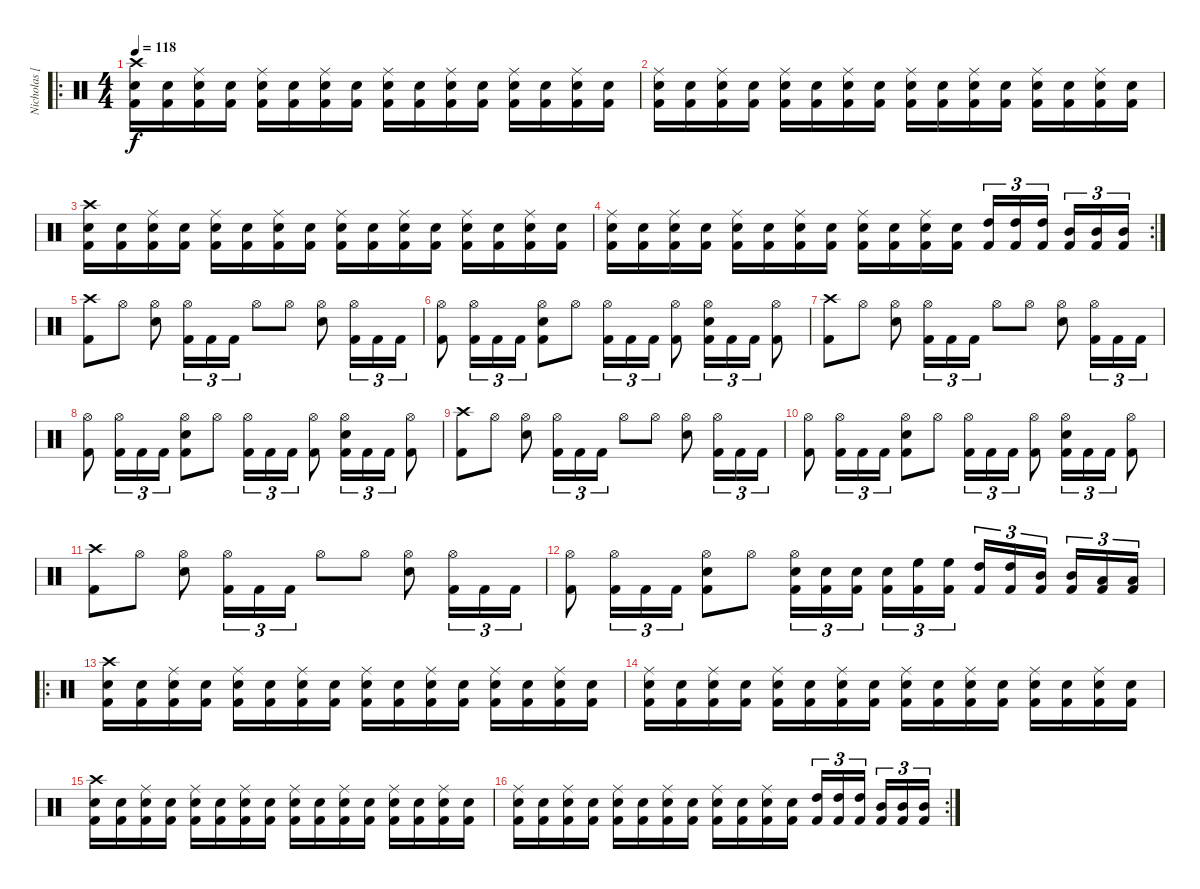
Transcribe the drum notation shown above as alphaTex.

\track ("Nicholas [Percussion]" "Nicholas [") {instrument percussion}
\staff {score}
\articulation defaults
\ro
\ts (4 4)
\tempo 118
\clef neutral
\ks c
("Kick (hit) 2" "Snare (hit) 2" "Crash high (hit)").16{dy f} ("Kick (hit) 2" "Snare (hit) 2").16 ("Kick (hit) 2" "Snare (hit) 2" "Ride (middle)").16 ("Kick (hit) 2" "Snare (hit) 2").16 ("Kick (hit) 2" "Snare (hit) 2" "Ride (middle)").16 ("Kick (hit) 2" "Snare (hit) 2").16 ("Kick (hit) 2" "Snare (hit) 2" "Ride (middle)").16 ("Kick (hit) 2" "Snare (hit) 2").16 ("Kick (hit) 2" "Snare (hit) 2" "Ride (middle)").16 ("Kick (hit) 2" "Snare (hit) 2").16 ("Kick (hit) 2" "Snare (hit) 2" "Ride (middle)").16 ("Kick (hit) 2" "Snare (hit) 2").16 ("Kick (hit) 2" "Snare (hit) 2" "Ride (middle)").16 ("Kick (hit) 2" "Snare (hit) 2").16 ("Kick (hit) 2" "Snare (hit) 2" "Ride (middle)").16 ("Kick (hit) 2" "Snare (hit) 2").16 |
("Kick (hit) 2" "Snare (hit) 2" "Ride (middle)").16 ("Kick (hit) 2" "Snare (hit) 2").16 ("Kick (hit) 2" "Snare (hit) 2" "Ride (middle)").16 ("Kick (hit) 2" "Snare (hit) 2").16 ("Kick (hit) 2" "Snare (hit) 2" "Ride (middle)").16 ("Kick (hit) 2" "Snare (hit) 2").16 ("Kick (hit) 2" "Snare (hit) 2" "Ride (middle)").16 ("Kick (hit) 2" "Snare (hit) 2").16 ("Kick (hit) 2" "Snare (hit) 2" "Ride (middle)").16 ("Kick (hit) 2" "Snare (hit) 2").16 ("Kick (hit) 2" "Snare (hit) 2" "Ride (middle)").16 ("Kick (hit) 2" "Snare (hit) 2").16 ("Kick (hit) 2" "Snare (hit) 2" "Ride (middle)").16 ("Kick (hit) 2" "Snare (hit) 2").16 ("Kick (hit) 2" "Snare (hit) 2" "Ride (middle)").16 ("Kick (hit) 2" "Snare (hit) 2").16 |
("Kick (hit) 2" "Snare (hit) 2" "Crash high (hit)").16 ("Kick (hit) 2" "Snare (hit) 2").16 ("Kick (hit) 2" "Snare (hit) 2" "Ride (middle)").16 ("Kick (hit) 2" "Snare (hit) 2").16 ("Kick (hit) 2" "Snare (hit) 2" "Ride (middle)").16 ("Kick (hit) 2" "Snare (hit) 2").16 ("Kick (hit) 2" "Snare (hit) 2" "Ride (middle)").16 ("Kick (hit) 2" "Snare (hit) 2").16 ("Kick (hit) 2" "Snare (hit) 2" "Ride (middle)").16 ("Kick (hit) 2" "Snare (hit) 2").16 ("Kick (hit) 2" "Snare (hit) 2" "Ride (middle)").16 ("Kick (hit) 2" "Snare (hit) 2").16 ("Kick (hit) 2" "Snare (hit) 2" "Ride (middle)").16 ("Kick (hit) 2" "Snare (hit) 2").16 ("Kick (hit) 2" "Snare (hit) 2" "Ride (middle)").16 ("Kick (hit) 2" "Snare (hit) 2").16 |
\rc 2
("Kick (hit) 2" "Snare (hit) 2" "Ride (middle)").16 ("Kick (hit) 2" "Snare (hit) 2").16 ("Kick (hit) 2" "Snare (hit) 2" "Ride (middle)").16 ("Kick (hit) 2" "Snare (hit) 2").16 ("Kick (hit) 2" "Snare (hit) 2" "Ride (middle)").16 ("Kick (hit) 2" "Snare (hit) 2").16 ("Kick (hit) 2" "Snare (hit) 2" "Ride (middle)").16 ("Kick (hit) 2" "Snare (hit) 2").16 ("Kick (hit) 2" "Snare (hit) 2" "Ride (middle)").16 ("Kick (hit) 2" "Snare (hit) 2").16 ("Kick (hit) 2" "Snare (hit) 2" "Ride (middle)").16 ("Kick (hit) 2" "Snare (hit) 2").16 ("Kick (hit) 2" "High Tom (hit)").16{tu (3 2)} ("Kick (hit) 2" "High Tom (hit)").16{tu (3 2)} ("Kick (hit) 2" "High Tom (hit)").16{tu (3 2)} ("Kick (hit) 2" "Mid Tom (hit)").16{tu (3 2)} ("Kick (hit) 2" "Mid Tom (hit)").16{tu (3 2)} ("Kick (hit) 2" "Mid Tom (hit)").16{tu (3 2)} |
("Kick (hit) 2" "Crash high (hit)").8 "Hi-Hat (open)".8 ("Snare (hit) 2" "Hi-Hat (open)").8 ("Kick (hit) 2" "Hi-Hat (open)").16{tu (3 2)} "Kick (hit) 2".16{tu (3 2)} "Kick (hit) 2".16{tu (3 2)} "Hi-Hat (open)".8 "Hi-Hat (open)".8 ("Snare (hit) 2" "Hi-Hat (open)").8 ("Kick (hit) 2" "Hi-Hat (open)").16{tu (3 2)} "Kick (hit) 2".16{tu (3 2)} "Kick (hit) 2".16{tu (3 2)} |
("Kick (hit) 2" "Hi-Hat (open)").8 ("Kick (hit) 2" "Hi-Hat (open)").16{tu (3 2)} "Kick (hit) 2".16{tu (3 2)} "Kick (hit) 2".16{tu (3 2)} ("Kick (hit) 2" "Snare (hit) 2" "Hi-Hat (open)").8 "Hi-Hat (open)".8 ("Kick (hit) 2" "Hi-Hat (open)").16{tu (3 2)} "Kick (hit) 2".16{tu (3 2)} "Kick (hit) 2".16{tu (3 2)} ("Kick (hit) 2" "Hi-Hat (open)").8 ("Kick (hit) 2" "Snare (hit) 2" "Hi-Hat (open)").16{tu (3 2)} "Kick (hit) 2".16{tu (3 2)} "Kick (hit) 2".16{tu (3 2)} ("Kick (hit) 2" "Hi-Hat (open)").8 |
("Kick (hit) 2" "Crash high (hit)").8 "Hi-Hat (open)".8 ("Snare (hit) 2" "Hi-Hat (open)").8 ("Kick (hit) 2" "Hi-Hat (open)").16{tu (3 2)} "Kick (hit) 2".16{tu (3 2)} "Kick (hit) 2".16{tu (3 2)} "Hi-Hat (open)".8 "Hi-Hat (open)".8 ("Snare (hit) 2" "Hi-Hat (open)").8 ("Kick (hit) 2" "Hi-Hat (open)").16{tu (3 2)} "Kick (hit) 2".16{tu (3 2)} "Kick (hit) 2".16{tu (3 2)} |
("Kick (hit) 2" "Hi-Hat (open)").8 ("Kick (hit) 2" "Hi-Hat (open)").16{tu (3 2)} "Kick (hit) 2".16{tu (3 2)} "Kick (hit) 2".16{tu (3 2)} ("Kick (hit) 2" "Snare (hit) 2" "Hi-Hat (open)").8 "Hi-Hat (open)".8 ("Kick (hit) 2" "Hi-Hat (open)").16{tu (3 2)} "Kick (hit) 2".16{tu (3 2)} "Kick (hit) 2".16{tu (3 2)} ("Kick (hit) 2" "Hi-Hat (open)").8 ("Kick (hit) 2" "Snare (hit) 2" "Hi-Hat (open)").16{tu (3 2)} "Kick (hit) 2".16{tu (3 2)} "Kick (hit) 2".16{tu (3 2)} ("Kick (hit) 2" "Hi-Hat (open)").8 |
("Kick (hit) 2" "Crash high (hit)").8 "Hi-Hat (open)".8 ("Snare (hit) 2" "Hi-Hat (open)").8 ("Kick (hit) 2" "Hi-Hat (open)").16{tu (3 2)} "Kick (hit) 2".16{tu (3 2)} "Kick (hit) 2".16{tu (3 2)} "Hi-Hat (open)".8 "Hi-Hat (open)".8 ("Snare (hit) 2" "Hi-Hat (open)").8 ("Kick (hit) 2" "Hi-Hat (open)").16{tu (3 2)} "Kick (hit) 2".16{tu (3 2)} "Kick (hit) 2".16{tu (3 2)} |
("Kick (hit) 2" "Hi-Hat (open)").8 ("Kick (hit) 2" "Hi-Hat (open)").16{tu (3 2)} "Kick (hit) 2".16{tu (3 2)} "Kick (hit) 2".16{tu (3 2)} ("Kick (hit) 2" "Snare (hit) 2" "Hi-Hat (open)").8 "Hi-Hat (open)".8 ("Kick (hit) 2" "Hi-Hat (open)").16{tu (3 2)} "Kick (hit) 2".16{tu (3 2)} "Kick (hit) 2".16{tu (3 2)} ("Kick (hit) 2" "Hi-Hat (open)").8 ("Kick (hit) 2" "Snare (hit) 2" "Hi-Hat (open)").16{tu (3 2)} "Kick (hit) 2".16{tu (3 2)} "Kick (hit) 2".16{tu (3 2)} ("Kick (hit) 2" "Hi-Hat (open)").8 |
("Kick (hit) 2" "Crash high (hit)").8 "Hi-Hat (open)".8 ("Snare (hit) 2" "Hi-Hat (open)").8 ("Kick (hit) 2" "Hi-Hat (open)").16{tu (3 2)} "Kick (hit) 2".16{tu (3 2)} "Kick (hit) 2".16{tu (3 2)} "Hi-Hat (open)".8 "Hi-Hat (open)".8 ("Snare (hit) 2" "Hi-Hat (open)").8 ("Kick (hit) 2" "Hi-Hat (open)").16{tu (3 2)} "Kick (hit) 2".16{tu (3 2)} "Kick (hit) 2".16{tu (3 2)} |
("Kick (hit) 2" "Hi-Hat (open)").8 ("Kick (hit) 2" "Hi-Hat (open)").16{tu (3 2)} "Kick (hit) 2".16{tu (3 2)} "Kick (hit) 2".16{tu (3 2)} ("Kick (hit) 2" "Snare (hit) 2" "Hi-Hat (open)").8 "Hi-Hat (open)".8 ("Kick (hit) 2" "Snare (hit) 2" "Hi-Hat (open)").16{tu (3 2)} ("Kick (hit) 2" "Snare (hit) 2").16{tu (3 2)} ("Kick (hit) 2" "Snare (hit) 2").16{tu (3 2)} ("Kick (hit) 2" "Snare (hit) 2").16{tu (3 2)} ("Kick (hit) 2" "High Floor Tom (hit)").16{tu (3 2)} ("Kick (hit) 2" "High Floor Tom (hit)").16{tu (3 2)} ("Kick (hit) 2" "High Tom (hit)").16{tu (3 2)} ("Kick (hit) 2" "High Tom (hit)").16{tu (3 2)} ("Kick (hit) 2" "Mid Tom (hit)").16{tu (3 2)} ("Kick (hit) 2" "Mid Tom (hit)").16{tu (3 2)} ("Kick (hit) 2" "Low Tom (hit)").16{tu (3 2)} ("Kick (hit) 2" "Low Tom (hit)").16{tu (3 2)} |
\ro
("Kick (hit) 2" "Snare (hit) 2" "Crash high (hit)").16 ("Kick (hit) 2" "Snare (hit) 2").16 ("Kick (hit) 2" "Snare (hit) 2" "Ride (middle)").16 ("Kick (hit) 2" "Snare (hit) 2").16 ("Kick (hit) 2" "Snare (hit) 2" "Ride (middle)").16 ("Kick (hit) 2" "Snare (hit) 2").16 ("Kick (hit) 2" "Snare (hit) 2" "Ride (middle)").16 ("Kick (hit) 2" "Snare (hit) 2").16 ("Kick (hit) 2" "Snare (hit) 2" "Ride (middle)").16 ("Kick (hit) 2" "Snare (hit) 2").16 ("Kick (hit) 2" "Snare (hit) 2" "Ride (middle)").16 ("Kick (hit) 2" "Snare (hit) 2").16 ("Kick (hit) 2" "Snare (hit) 2" "Ride (middle)").16 ("Kick (hit) 2" "Snare (hit) 2").16 ("Kick (hit) 2" "Snare (hit) 2" "Ride (middle)").16 ("Kick (hit) 2" "Snare (hit) 2").16 |
("Kick (hit) 2" "Snare (hit) 2" "Ride (middle)").16 ("Kick (hit) 2" "Snare (hit) 2").16 ("Kick (hit) 2" "Snare (hit) 2" "Ride (middle)").16 ("Kick (hit) 2" "Snare (hit) 2").16 ("Kick (hit) 2" "Snare (hit) 2" "Ride (middle)").16 ("Kick (hit) 2" "Snare (hit) 2").16 ("Kick (hit) 2" "Snare (hit) 2" "Ride (middle)").16 ("Kick (hit) 2" "Snare (hit) 2").16 ("Kick (hit) 2" "Snare (hit) 2" "Ride (middle)").16 ("Kick (hit) 2" "Snare (hit) 2").16 ("Kick (hit) 2" "Snare (hit) 2" "Ride (middle)").16 ("Kick (hit) 2" "Snare (hit) 2").16 ("Kick (hit) 2" "Snare (hit) 2" "Ride (middle)").16 ("Kick (hit) 2" "Snare (hit) 2").16 ("Kick (hit) 2" "Snare (hit) 2" "Ride (middle)").16 ("Kick (hit) 2" "Snare (hit) 2").16 |
("Kick (hit) 2" "Snare (hit) 2" "Crash high (hit)").16 ("Kick (hit) 2" "Snare (hit) 2").16 ("Kick (hit) 2" "Snare (hit) 2" "Ride (middle)").16 ("Kick (hit) 2" "Snare (hit) 2").16 ("Kick (hit) 2" "Snare (hit) 2" "Ride (middle)").16 ("Kick (hit) 2" "Snare (hit) 2").16 ("Kick (hit) 2" "Snare (hit) 2" "Ride (middle)").16 ("Kick (hit) 2" "Snare (hit) 2").16 ("Kick (hit) 2" "Snare (hit) 2" "Ride (middle)").16 ("Kick (hit) 2" "Snare (hit) 2").16 ("Kick (hit) 2" "Snare (hit) 2" "Ride (middle)").16 ("Kick (hit) 2" "Snare (hit) 2").16 ("Kick (hit) 2" "Snare (hit) 2" "Ride (middle)").16 ("Kick (hit) 2" "Snare (hit) 2").16 ("Kick (hit) 2" "Snare (hit) 2" "Ride (middle)").16 ("Kick (hit) 2" "Snare (hit) 2").16 |
\rc 2
("Kick (hit) 2" "Snare (hit) 2" "Ride (middle)").16 ("Kick (hit) 2" "Snare (hit) 2").16 ("Kick (hit) 2" "Snare (hit) 2" "Ride (middle)").16 ("Kick (hit) 2" "Snare (hit) 2").16 ("Kick (hit) 2" "Snare (hit) 2" "Ride (middle)").16 ("Kick (hit) 2" "Snare (hit) 2").16 ("Kick (hit) 2" "Snare (hit) 2" "Ride (middle)").16 ("Kick (hit) 2" "Snare (hit) 2").16 ("Kick (hit) 2" "Snare (hit) 2" "Ride (middle)").16 ("Kick (hit) 2" "Snare (hit) 2").16 ("Kick (hit) 2" "Snare (hit) 2" "Ride (middle)").16 ("Kick (hit) 2" "Snare (hit) 2").16 ("Kick (hit) 2" "High Tom (hit)").16{tu (3 2)} ("Kick (hit) 2" "High Tom (hit)").16{tu (3 2)} ("Kick (hit) 2" "High Tom (hit)").16{tu (3 2)} ("Kick (hit) 2" "Mid Tom (hit)").16{tu (3 2)} ("Kick (hit) 2" "Mid Tom (hit)").16{tu (3 2)} ("Kick (hit) 2" "Mid Tom (hit)").16{tu (3 2)}
